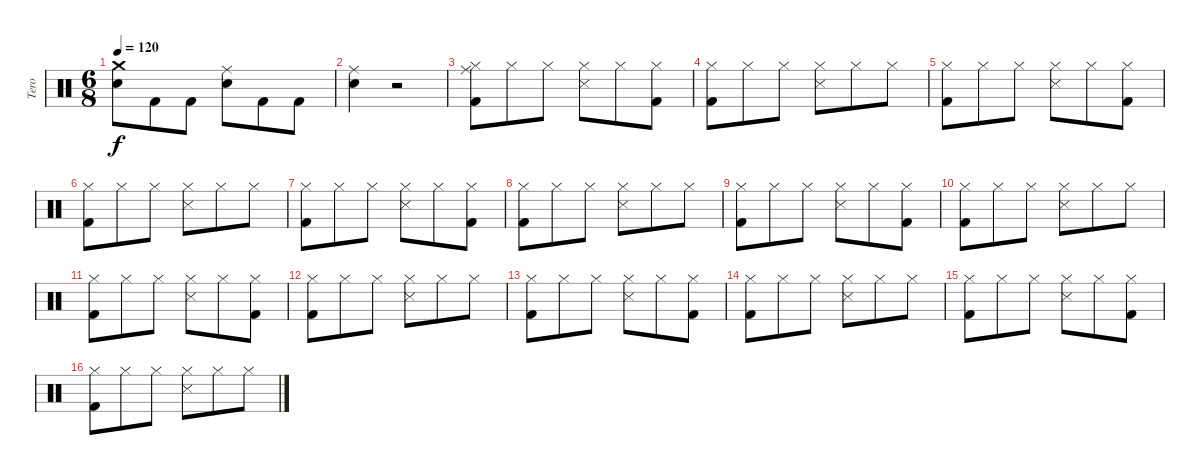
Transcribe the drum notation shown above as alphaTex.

\track ("Tero" "Tero") {instrument percussion}
\staff {score}
\articulation defaults
\ts (6 8)
\tempo 120
\clef neutral
\ks c
("Crash medium (hit)" "Snare (hit) 2").8{dy f} "Kick (hit) 2".8 "Kick (hit) 2".8 ("Ride (middle)" "Snare (hit) 2").8 "Kick (hit) 2".8 "Kick (hit) 2".8 |
("Ride (middle)" "Snare (hit) 2").4 r.2 |
("Ride (middle)" "Hi-Hat (closed)" "Kick (hit) 2").8 "Hi-Hat (closed)".8 "Hi-Hat (closed)".8 ("Hi-Hat (closed)" "Snare (side stick) 3").8 "Hi-Hat (closed)".8 ("Kick (hit) 2" "Hi-Hat (closed)").8 |
("Hi-Hat (closed)" "Kick (hit) 2").8 "Hi-Hat (closed)".8 "Hi-Hat (closed)".8 ("Snare (side stick) 3" "Hi-Hat (closed)").8 "Hi-Hat (closed)".8 "Hi-Hat (closed)".8 |
("Hi-Hat (closed)" "Kick (hit) 2").8 "Hi-Hat (closed)".8 "Hi-Hat (closed)".8 ("Hi-Hat (closed)" "Snare (side stick) 3").8 "Hi-Hat (closed)".8 ("Hi-Hat (closed)" "Kick (hit) 2").8 |
("Hi-Hat (closed)" "Kick (hit) 2").8 "Hi-Hat (closed)".8 "Hi-Hat (closed)".8 ("Hi-Hat (closed)" "Snare (side stick) 3").8 "Hi-Hat (closed)".8 "Hi-Hat (closed)".8 |
("Hi-Hat (closed)" "Kick (hit) 2").8 "Hi-Hat (closed)".8 "Hi-Hat (closed)".8 ("Hi-Hat (closed)" "Snare (side stick) 3").8 "Hi-Hat (closed)".8 ("Kick (hit) 2" "Hi-Hat (closed)").8 |
("Hi-Hat (closed)" "Kick (hit) 2").8 "Hi-Hat (closed)".8 "Hi-Hat (closed)".8 ("Hi-Hat (closed)" "Snare (side stick) 3").8 "Hi-Hat (closed)".8 "Hi-Hat (closed)".8 |
("Hi-Hat (closed)" "Kick (hit) 2").8 "Hi-Hat (closed)".8 "Hi-Hat (closed)".8 ("Hi-Hat (closed)" "Snare (side stick) 3").8 "Hi-Hat (closed)".8 ("Hi-Hat (closed)" "Kick (hit) 2").8 |
("Hi-Hat (closed)" "Kick (hit) 2").8 "Hi-Hat (closed)".8 "Hi-Hat (closed)".8 ("Hi-Hat (closed)" "Snare (side stick) 3").8 "Hi-Hat (closed)".8 "Hi-Hat (closed)".8 |
("Hi-Hat (closed)" "Kick (hit) 2").8 "Hi-Hat (closed)".8 "Hi-Hat (closed)".8 ("Hi-Hat (closed)" "Snare (side stick) 3").8 "Hi-Hat (closed)".8 ("Hi-Hat (closed)" "Kick (hit) 2").8 |
("Hi-Hat (closed)" "Kick (hit) 2").8 "Hi-Hat (closed)".8 "Hi-Hat (closed)".8 ("Hi-Hat (closed)" "Snare (side stick) 3").8 "Hi-Hat (closed)".8 "Hi-Hat (closed)".8 |
("Hi-Hat (closed)" "Kick (hit) 2").8 "Hi-Hat (closed)".8 "Hi-Hat (closed)".8 ("Hi-Hat (closed)" "Snare (side stick) 3").8 "Hi-Hat (closed)".8 ("Hi-Hat (closed)" "Kick (hit) 2").8 |
("Hi-Hat (closed)" "Kick (hit) 2").8 "Hi-Hat (closed)".8 "Hi-Hat (closed)".8 ("Hi-Hat (closed)" "Snare (side stick) 3").8 "Hi-Hat (closed)".8 "Hi-Hat (closed)".8 |
("Hi-Hat (closed)" "Kick (hit) 2").8 "Hi-Hat (closed)".8 "Hi-Hat (closed)".8 ("Hi-Hat (closed)" "Snare (side stick) 3").8 "Hi-Hat (closed)".8 ("Hi-Hat (closed)" "Kick (hit) 2").8 |
("Hi-Hat (closed)" "Kick (hit) 2").8 "Hi-Hat (closed)".8 "Hi-Hat (closed)".8 ("Hi-Hat (closed)" "Snare (side stick) 3").8 "Hi-Hat (closed)".8 "Hi-Hat (closed)".8
